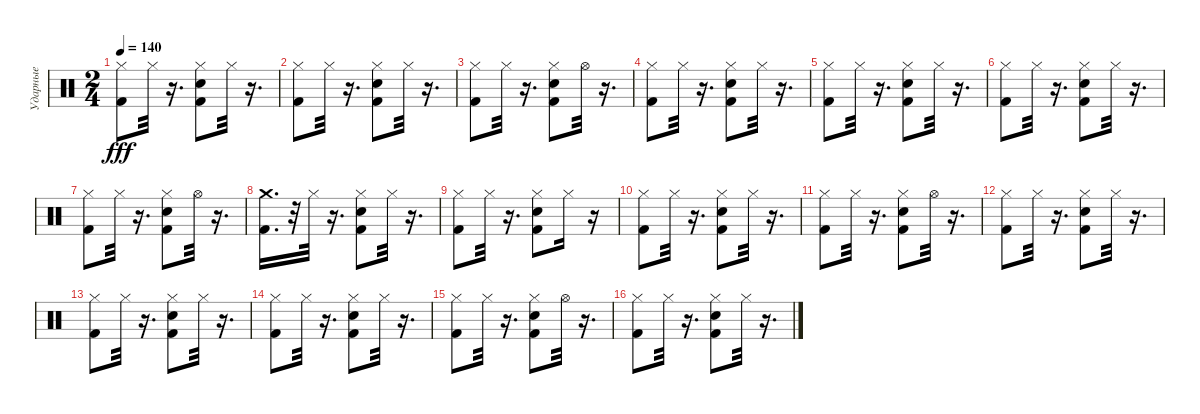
\track ("Ударные" "Ударные") {instrument percussion}
\staff {score}
\articulation defaults
\ts (2 4)
\tempo 140
\clef neutral
\ks c
("Kick (hit) 2" "Hi-Hat (closed)").8{dy fff} "Hi-Hat (closed)".32 r.16{d} ("Snare (hit) 2" "Kick (hit) 2" "Hi-Hat (closed)").8 "Hi-Hat (closed)".32 r.16{d} |
("Kick (hit) 2" "Hi-Hat (closed)").8 "Hi-Hat (closed)".32 r.16{d} ("Snare (hit) 2" "Kick (hit) 2" "Hi-Hat (closed)").8 "Hi-Hat (closed)".32 r.16{d} |
("Kick (hit) 2" "Hi-Hat (closed)").8 "Hi-Hat (closed)".32 r.16{d} ("Snare (hit) 2" "Kick (hit) 2" "Hi-Hat (closed)").8 "Hi-Hat (open)".32 r.16{d} |
("Kick (hit) 2" "Hi-Hat (closed)").8 "Hi-Hat (closed)".32 r.16{d} ("Kick (hit) 2" "Hi-Hat (closed)" "Snare (hit) 2").8 "Hi-Hat (closed)".32 r.16{d} |
("Kick (hit) 2" "Hi-Hat (closed)").8 "Hi-Hat (closed)".32 r.16{d} ("Hi-Hat (closed)" "Snare (hit) 2" "Kick (hit) 2").8 "Hi-Hat (closed)".32 r.16{d} |
("Kick (hit) 2" "Hi-Hat (closed)").8 "Hi-Hat (closed)".32 r.16{d} ("Kick (hit) 2" "Hi-Hat (closed)" "Snare (hit) 2").8 "Hi-Hat (closed)".32 r.16{d} |
("Kick (hit) 2" "Hi-Hat (closed)").8 "Hi-Hat (closed)".32 r.16{d} ("Snare (hit) 2" "Kick (hit) 2" "Hi-Hat (closed)").8 "Hi-Hat (open)".32 r.16{d} |
("Kick (hit) 2" "Crash medium (hit)").16{d} r.32 "Hi-Hat (closed)".32 r.16{d} ("Kick (hit) 2" "Snare (hit) 2" "Hi-Hat (closed)").8 "Hi-Hat (closed)".32 r.16{d} |
("Kick (hit) 2" "Hi-Hat (closed)").8 "Hi-Hat (closed)".32 r.16{d} ("Hi-Hat (closed)" "Snare (hit) 2" "Kick (hit) 2").8 "Hi-Hat (closed)".16 r.16 |
("Kick (hit) 2" "Hi-Hat (closed)").8 "Hi-Hat (closed)".32 r.16{d} ("Snare (hit) 2" "Kick (hit) 2" "Hi-Hat (closed)").8 "Hi-Hat (closed)".32 r.16{d} |
("Kick (hit) 2" "Hi-Hat (closed)").8 "Hi-Hat (closed)".32 r.16{d} ("Snare (hit) 2" "Hi-Hat (closed)" "Kick (hit) 2").8 "Hi-Hat (open)".32 r.16{d} |
("Kick (hit) 2" "Hi-Hat (closed)").8 "Hi-Hat (closed)".32 r.16{d} ("Snare (hit) 2" "Kick (hit) 2" "Hi-Hat (closed)").8 "Hi-Hat (closed)".32 r.16{d} |
("Kick (hit) 2" "Hi-Hat (closed)").8 "Hi-Hat (closed)".32 r.16{d} ("Snare (hit) 2" "Kick (hit) 2" "Hi-Hat (closed)").8 "Hi-Hat (closed)".32 r.16{d} |
("Kick (hit) 2" "Hi-Hat (closed)").8 "Hi-Hat (closed)".32 r.16{d} ("Kick (hit) 2" "Hi-Hat (closed)" "Snare (hit) 2").8 "Hi-Hat (closed)".32 r.16{d} |
("Kick (hit) 2" "Hi-Hat (closed)").8 "Hi-Hat (closed)".32 r.16{d} ("Snare (hit) 2" "Kick (hit) 2" "Hi-Hat (closed)").8 "Hi-Hat (open)".32 r.16{d} |
("Kick (hit) 2" "Hi-Hat (closed)").8 "Hi-Hat (closed)".32 r.16{d} ("Snare (hit) 2" "Kick (hit) 2" "Hi-Hat (closed)").8 "Hi-Hat (closed)".32 r.16{d}
